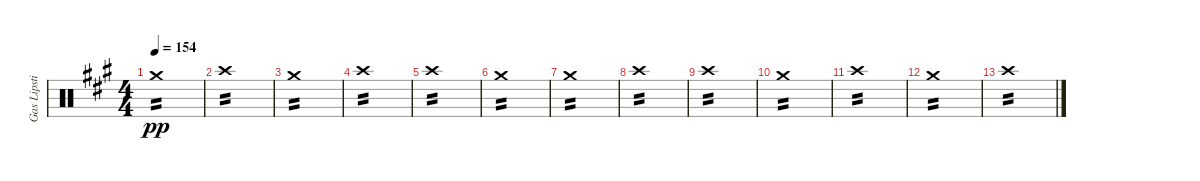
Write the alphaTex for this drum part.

\track ("Gas Lipstick (Drums)" "Gas Lipsti") {instrument percussion}
\staff {score}
\articulation defaults
\ts (4 4)
\tempo 154
\clef neutral
\ks a "Crash medium (hit)".1{tp 2 dy pp balance 16}
|
"Crash high (hit)".1{tp 2} |
"Crash medium (hit)".1{tp 2} |
"Crash high (hit)".1{tp 2} |
"Crash high (hit)".1{tp 2 balance 8} |
"Crash medium (hit)".1{tp 2} |
"Crash medium (hit)".1{tp 2} |
"Crash high (hit)".1{tp 2} |
"Crash high (hit)".1{tp 2 volume 0} |
"Crash medium (hit)".1{tp 2} |
"Crash high (hit)".1{tp 2} |
"Crash medium (hit)".1{tp 2} |
"Crash high (hit)".1{tp 2}
